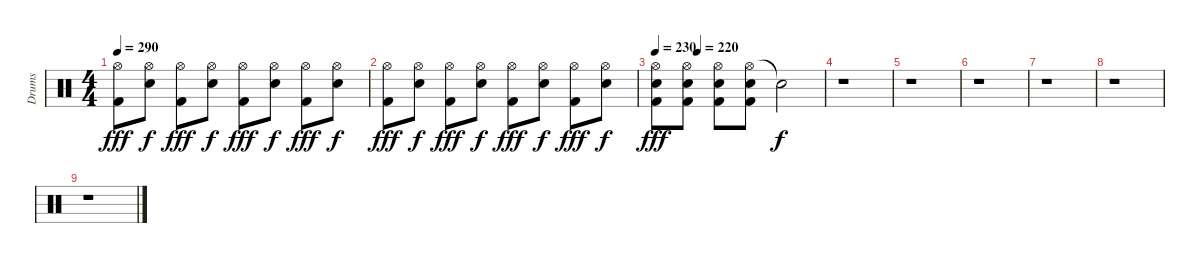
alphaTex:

\track ("Drums" "Drums") {instrument percussion}
\staff {score}
\articulation defaults
\ts (4 4)
\tempo 290
\clef neutral
\ks c
("Hi-Hat (open)" "Kick (hit) 2").8{dy fff} ("Hi-Hat (open)" "Snare (hit) 2").8{dy f} ("Hi-Hat (open)" "Kick (hit) 2").8{dy fff} ("Hi-Hat (open)" "Snare (hit) 2").8{dy f} ("Hi-Hat (open)" "Kick (hit) 2").8{dy fff} ("Hi-Hat (open)" "Snare (hit) 2").8{dy f} ("Hi-Hat (open)" "Kick (hit) 2").8{dy fff} ("Hi-Hat (open)" "Snare (hit) 2").8{dy f} |
("Hi-Hat (open)" "Kick (hit) 2").8{dy fff} ("Hi-Hat (open)" "Snare (hit) 2").8{dy f} ("Hi-Hat (open)" "Kick (hit) 2").8{dy fff} ("Hi-Hat (open)" "Snare (hit) 2").8{dy f} ("Hi-Hat (open)" "Kick (hit) 2").8{dy fff} ("Hi-Hat (open)" "Snare (hit) 2").8{dy f} ("Hi-Hat (open)" "Kick (hit) 2").8{dy fff} ("Hi-Hat (open)" "Snare (hit) 2").8{dy f} |
\tempo 230
\tempo (220 0.25)
("Hi-Hat (open)" "Snare (hit) 2" "Kick (hit) 2").8{dy fff} ("Hi-Hat (open)" "Snare (hit) 2" "Kick (hit) 2").8 ("Hi-Hat (open)" "Snare (hit) 2" "Kick (hit) 2").8 ("Hi-Hat (open)" "Snare (hit) 2" "Kick (hit) 2").8 "Snare (hit)"{t}.2{dy f} |
r.1 |
r.1 |
r.1 |
r.1 |
r.1{volume 3} |
r.1
